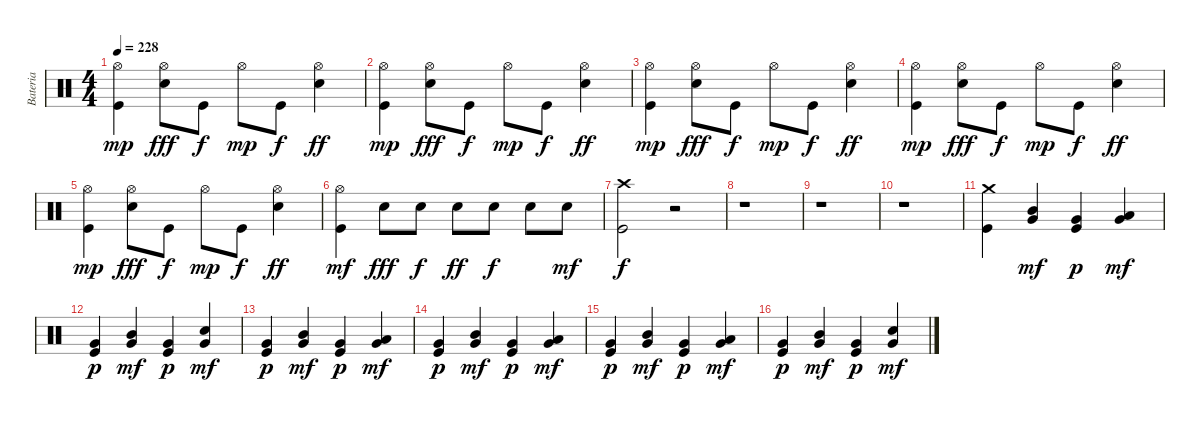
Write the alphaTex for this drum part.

\track ("Bateria" "Bateria") {instrument percussion}
\staff {score}
\articulation defaults
\ts (4 4)
\tempo 228
\clef neutral
\ks c
("Hi-Hat (open)" "Kick (hit)").4{dy mp} ("Hi-Hat (open)" "Electric Snare (hit)").8{dy fff} "Kick (hit)".8{dy f} "Hi-Hat (open)".8{dy mp} "Kick (hit)".8{dy f} ("Hi-Hat (open)" "Electric Snare (hit)").4{dy ff} |
("Hi-Hat (open)" "Kick (hit)").4{dy mp} ("Hi-Hat (open)" "Electric Snare (hit)").8{dy fff} "Kick (hit)".8{dy f} "Hi-Hat (open)".8{dy mp} "Kick (hit)".8{dy f} ("Hi-Hat (open)" "Electric Snare (hit)").4{dy ff} |
("Hi-Hat (open)" "Kick (hit)").4{dy mp} ("Hi-Hat (open)" "Electric Snare (hit)").8{dy fff} "Kick (hit)".8{dy f} "Hi-Hat (open)".8{dy mp} "Kick (hit)".8{dy f} ("Hi-Hat (open)" "Electric Snare (hit)").4{dy ff} |
("Hi-Hat (open)" "Kick (hit)").4{dy mp} ("Hi-Hat (open)" "Electric Snare (hit)").8{dy fff} "Kick (hit)".8{dy f} "Hi-Hat (open)".8{dy mp} "Kick (hit)".8{dy f} ("Hi-Hat (open)" "Electric Snare (hit)").4{dy ff} |
("Hi-Hat (open)" "Kick (hit)").4{dy mp} ("Hi-Hat (open)" "Electric Snare (hit)").8{dy fff} "Kick (hit)".8{dy f} "Hi-Hat (open)".8{dy mp} "Kick (hit)".8{dy f} ("Hi-Hat (open)" "Electric Snare (hit)").4{dy ff} |
("Hi-Hat (open)" "Kick (hit)").4{dy mf} "Electric Snare (hit)".8{dy fff} "Electric Snare (hit)".8{dy f} "Electric Snare (hit)".8{dy ff} "Electric Snare (hit)".8{dy f} "Electric Snare (hit)".8 "Electric Snare (hit)".8{dy mf} |
("Crash high (hit)" "Kick (hit)").2{dy f} r.2 |
r.1 |
r.1 |
r.1 |
("Crash medium (hit)" "Kick (hit)").4 ("Mid Tom (hit)" "Very Low Tom (hit)").4{dy mf} ("Kick (hit)" "Very Low Tom (hit)").4{dy p} ("Low Tom (hit)" "Very Low Tom (hit)").4{dy mf} |
("Kick (hit)" "Very Low Tom (hit)").4{dy p} ("Mid Tom (hit)" "Very Low Tom (hit)").4{dy mf} ("Kick (hit)" "Very Low Tom (hit)").4{dy p} ("Electric Snare (hit)" "Very Low Tom (hit)").4{dy mf} |
("Kick (hit)" "Very Low Tom (hit)").4{dy p} ("Mid Tom (hit)" "Very Low Tom (hit)").4{dy mf} ("Kick (hit)" "Very Low Tom (hit)").4{dy p} ("Low Tom (hit)" "Very Low Tom (hit)").4{dy mf} |
("Kick (hit)" "Very Low Tom (hit)").4{dy p} ("Mid Tom (hit)" "Very Low Tom (hit)").4{dy mf} ("Kick (hit)" "Very Low Tom (hit)").4{dy p} ("Low Tom (hit)" "Very Low Tom (hit)").4{dy mf} |
("Kick (hit)" "Very Low Tom (hit)").4{dy p} ("Mid Tom (hit)" "Very Low Tom (hit)").4{dy mf} ("Kick (hit)" "Very Low Tom (hit)").4{dy p} ("Low Tom (hit)" "Very Low Tom (hit)").4{dy mf} |
("Kick (hit)" "Very Low Tom (hit)").4{dy p} ("Mid Tom (hit)" "Very Low Tom (hit)").4{dy mf} ("Kick (hit)" "Very Low Tom (hit)").4{dy p} ("Electric Snare (hit)" "Very Low Tom (hit)").4{dy mf}
